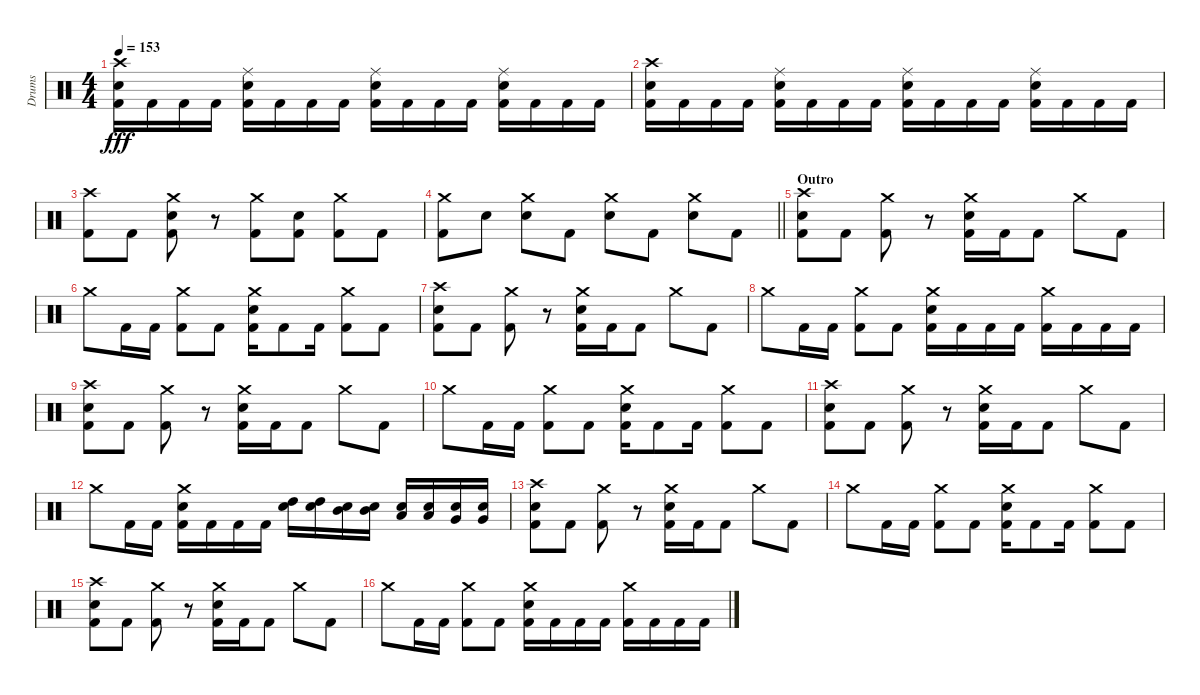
\track ("Drums" "Drums") {instrument percussion}
\staff {score}
\articulation defaults
\ts (4 4)
\tempo 153
\clef neutral
\ks c
("Crash high (hit)" "Snare (hit) 2" "Kick (hit) 2").16{dy fff} "Kick (hit) 2".16 "Kick (hit) 2".16 "Kick (hit) 2".16 ("Ride (middle)" "Snare (hit) 2" "Kick (hit) 2").16 "Kick (hit) 2".16 "Kick (hit) 2".16 "Kick (hit) 2".16 ("Ride (middle)" "Snare (hit) 2" "Kick (hit) 2").16 "Kick (hit) 2".16 "Kick (hit) 2".16 "Kick (hit) 2".16 ("Ride (middle)" "Snare (hit) 2" "Kick (hit) 2").16 "Kick (hit) 2".16 "Kick (hit) 2".16 "Kick (hit) 2".16 |
("Crash high (hit)" "Snare (hit) 2" "Kick (hit) 2").16 "Kick (hit) 2".16 "Kick (hit) 2".16 "Kick (hit) 2".16 ("Ride (middle)" "Snare (hit) 2" "Kick (hit) 2").16 "Kick (hit) 2".16 "Kick (hit) 2".16 "Kick (hit) 2".16 ("Ride (middle)" "Snare (hit) 2" "Kick (hit) 2").16 "Kick (hit) 2".16 "Kick (hit) 2".16 "Kick (hit) 2".16 ("Ride (middle)" "Snare (hit) 2" "Kick (hit) 2").16 "Kick (hit) 2".16 "Kick (hit) 2".16 "Kick (hit) 2".16 |
("Crash high (hit)" "Kick (hit) 2").8 "Kick (hit) 2".8 ("Crash medium (hit)" "Snare (hit) 2" "Kick (hit) 2").8 r.8 ("Crash medium (hit)" "Kick (hit) 2").8 ("Snare (hit) 2" "Kick (hit) 2").8 ("Crash medium (hit)" "Kick (hit) 2").8 "Kick (hit) 2".8 |
\barLineRight lightlight
("Crash medium (hit)" "Kick (hit) 2").8 "Snare (hit) 2".8 ("Crash medium (hit)" "Snare (hit) 2").8 "Kick (hit) 2".8 ("Crash medium (hit)" "Snare (hit) 2").8 "Kick (hit) 2".8 ("Crash medium (hit)" "Snare (hit) 2").8 "Kick (hit) 2".8 |
\section ("" "Outro")
("Crash high (hit)" "Snare (hit) 2" "Kick (hit) 2").8 "Kick (hit) 2".8 ("Crash medium (hit)" "Kick (hit) 2").8 r.8 ("Snare (hit) 2" "Crash medium (hit)" "Kick (hit) 2").16 "Kick (hit) 2".16 "Kick (hit) 2".8 "Crash medium (hit)".8 "Kick (hit) 2".8 |
"Crash medium (hit)".8 "Kick (hit) 2".16 "Kick (hit) 2".16 ("Crash medium (hit)" "Kick (hit) 2").8 "Kick (hit) 2".8 ("Snare (hit) 2" "Crash medium (hit)" "Kick (hit) 2").16 "Kick (hit) 2".8 "Kick (hit) 2".16 ("Crash medium (hit)" "Kick (hit) 2").8 "Kick (hit) 2".8 |
("Crash high (hit)" "Snare (hit) 2" "Kick (hit) 2").8 "Kick (hit) 2".8 ("Crash medium (hit)" "Kick (hit) 2").8 r.8 ("Snare (hit) 2" "Crash medium (hit)" "Kick (hit) 2").16 "Kick (hit) 2".16 "Kick (hit) 2".8 "Crash medium (hit)".8 "Kick (hit) 2".8 |
"Crash medium (hit)".8 "Kick (hit) 2".16 "Kick (hit) 2".16 ("Crash medium (hit)" "Kick (hit) 2").8 "Kick (hit) 2".8 ("Snare (hit) 2" "Crash medium (hit)" "Kick (hit) 2").16 "Kick (hit) 2".16 "Kick (hit) 2".16 "Kick (hit) 2".16 ("Crash medium (hit)" "Kick (hit) 2").16 "Kick (hit) 2".16 "Kick (hit) 2".16 "Kick (hit) 2".16 |
("Crash high (hit)" "Snare (hit) 2" "Kick (hit) 2").8 "Kick (hit) 2".8 ("Crash medium (hit)" "Kick (hit) 2").8 r.8 ("Snare (hit) 2" "Crash medium (hit)" "Kick (hit) 2").16 "Kick (hit) 2".16 "Kick (hit) 2".8 "Crash medium (hit)".8 "Kick (hit) 2".8 |
"Crash medium (hit)".8 "Kick (hit) 2".16 "Kick (hit) 2".16 ("Crash medium (hit)" "Kick (hit) 2").8 "Kick (hit) 2".8 ("Snare (hit) 2" "Crash medium (hit)" "Kick (hit) 2").16 "Kick (hit) 2".8 "Kick (hit) 2".16 ("Crash medium (hit)" "Kick (hit) 2").8 "Kick (hit) 2".8 |
("Crash high (hit)" "Snare (hit) 2" "Kick (hit) 2").8 "Kick (hit) 2".8 ("Crash medium (hit)" "Kick (hit) 2").8 r.8 ("Snare (hit) 2" "Crash medium (hit)" "Kick (hit) 2").16 "Kick (hit) 2".16 "Kick (hit) 2".8 "Crash medium (hit)".8 "Kick (hit) 2".8 |
"Crash medium (hit)".8 "Kick (hit) 2".16 "Kick (hit) 2".16 ("Snare (hit) 2" "Crash medium (hit)" "Kick (hit) 2").16 "Kick (hit) 2".16 "Kick (hit) 2".16 "Kick (hit) 2".16 ("High Tom (hit)" "Snare (hit) 2").16 ("High Tom (hit)" "Snare (hit) 2").16 ("Mid Tom (hit)" "Snare (hit) 2").16 ("Mid Tom (hit)" "Snare (hit) 2").16 ("Low Tom (hit)" "Snare (hit) 2").16 ("Low Tom (hit)" "Snare (hit) 2").16 ("Very Low Tom (hit)" "Snare (hit) 2").16 ("Very Low Tom (hit)" "Snare (hit) 2").16 |
("Crash high (hit)" "Snare (hit) 2" "Kick (hit) 2").8 "Kick (hit) 2".8 ("Crash medium (hit)" "Kick (hit) 2").8 r.8 ("Snare (hit) 2" "Crash medium (hit)" "Kick (hit) 2").16 "Kick (hit) 2".16 "Kick (hit) 2".8 "Crash medium (hit)".8 "Kick (hit) 2".8 |
"Crash medium (hit)".8 "Kick (hit) 2".16 "Kick (hit) 2".16 ("Crash medium (hit)" "Kick (hit) 2").8 "Kick (hit) 2".8 ("Snare (hit) 2" "Crash medium (hit)" "Kick (hit) 2").16 "Kick (hit) 2".8 "Kick (hit) 2".16 ("Crash medium (hit)" "Kick (hit) 2").8 "Kick (hit) 2".8 |
("Crash high (hit)" "Snare (hit) 2" "Kick (hit) 2").8 "Kick (hit) 2".8 ("Crash medium (hit)" "Kick (hit) 2").8 r.8 ("Snare (hit) 2" "Crash medium (hit)" "Kick (hit) 2").16 "Kick (hit) 2".16 "Kick (hit) 2".8 "Crash medium (hit)".8 "Kick (hit) 2".8 |
"Crash medium (hit)".8 "Kick (hit) 2".16 "Kick (hit) 2".16 ("Crash medium (hit)" "Kick (hit) 2").8 "Kick (hit) 2".8 ("Snare (hit) 2" "Crash medium (hit)" "Kick (hit) 2").16 "Kick (hit) 2".16 "Kick (hit) 2".16 "Kick (hit) 2".16 ("Crash medium (hit)" "Kick (hit) 2").16 "Kick (hit) 2".16 "Kick (hit) 2".16 "Kick (hit) 2".16
